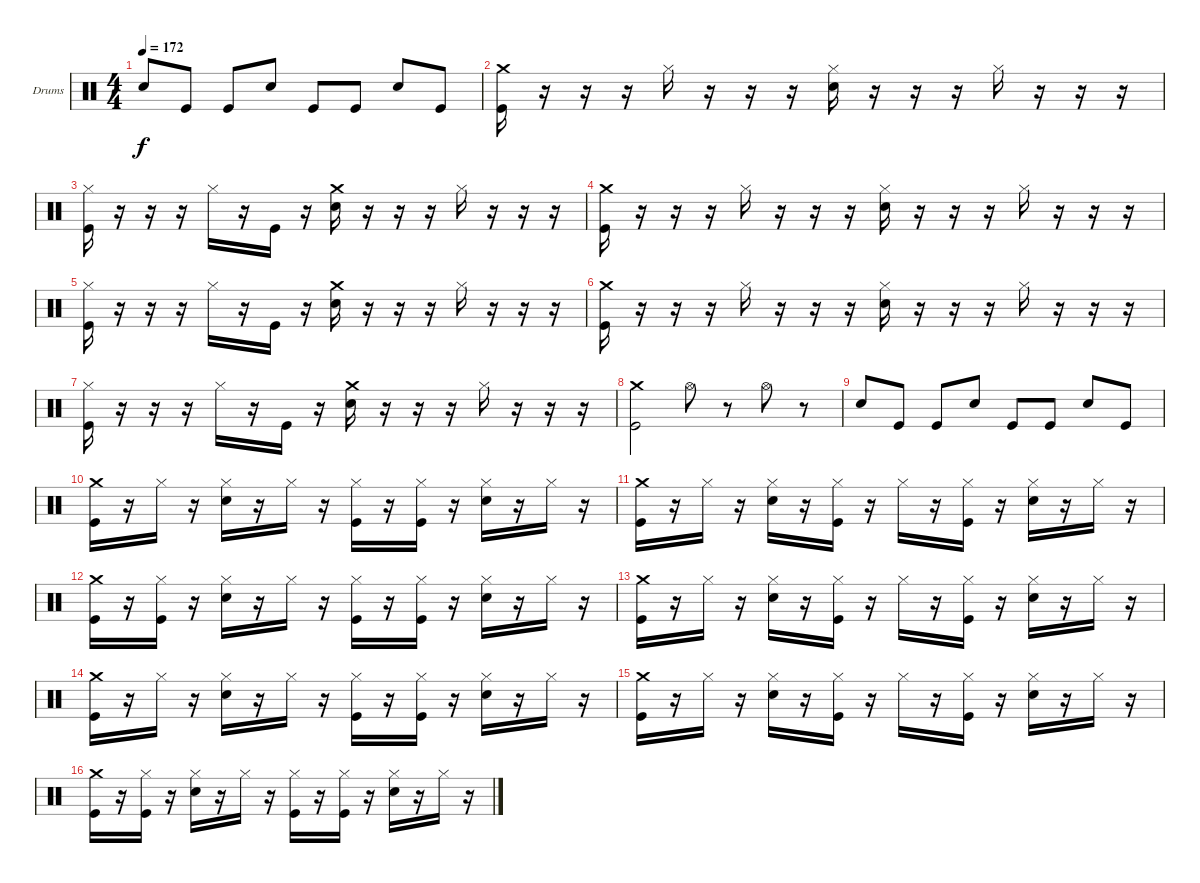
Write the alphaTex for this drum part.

\bracketExtendMode groupsimilarinstruments
\firstSystemTrackNameOrientation horizontal
\otherSystemsTrackNameOrientation horizontal
\track ("Drumkit" "Drums") {instrument percussion}
\staff {score}
\articulation defaults
\ts (4 4)
\tempo 172
\clef neutral
\ks c "Snare (hit) 2".8{dy f} "Kick (hit)".8 "Kick (hit)".8 "Snare (hit) 2".8 "Kick (hit)".8 "Kick (hit)".8 "Snare (hit) 2".8 "Kick (hit)".8
|
("Kick (hit)" "Crash medium (hit)").16 r.16 r.16 r.16 "Hi-Hat (closed)".16 r.16 r.16 r.16 ("Snare (hit) 2" "Hi-Hat (closed)").16 r.16 r.16 r.16 "Hi-Hat (closed)".16 r.16 r.16 r.16 |
("Kick (hit)" "Hi-Hat (closed)").16 r.16 r.16 r.16 "Hi-Hat (closed)".16 r.16 "Kick (hit)".16 r.16 ("Snare (hit) 2" "Crash medium (hit)").16 r.16 r.16 r.16 "Hi-Hat (closed)".16 r.16 r.16 r.16 |
("Kick (hit)" "Crash medium (hit)").16 r.16 r.16 r.16 "Hi-Hat (closed)".16 r.16 r.16 r.16 ("Snare (hit) 2" "Hi-Hat (closed)").16 r.16 r.16 r.16 "Hi-Hat (closed)".16 r.16 r.16 r.16 |
("Kick (hit)" "Hi-Hat (closed)").16 r.16 r.16 r.16 "Hi-Hat (closed)".16 r.16 "Kick (hit)".16 r.16 ("Snare (hit) 2" "Crash medium (hit)").16 r.16 r.16 r.16 "Hi-Hat (closed)".16 r.16 r.16 r.16 |
("Kick (hit)" "Crash medium (hit)").16 r.16 r.16 r.16 "Hi-Hat (closed)".16 r.16 r.16 r.16 ("Snare (hit) 2" "Hi-Hat (closed)").16 r.16 r.16 r.16 "Hi-Hat (closed)".16 r.16 r.16 r.16 |
("Kick (hit)" "Hi-Hat (closed)").16 r.16 r.16 r.16 "Hi-Hat (closed)".16 r.16 "Kick (hit)".16 r.16 ("Snare (hit) 2" "Crash medium (hit)").16 r.16 r.16 r.16 "Hi-Hat (closed)".16 r.16 r.16 r.16 |
("Kick (hit)" "Crash medium (hit)").2 "Hi-Hat (open)".8 r.8 "Hi-Hat (open)".8 r.8 |
"Snare (hit) 2".8 "Kick (hit)".8 "Kick (hit)".8 "Snare (hit) 2".8 "Kick (hit)".8 "Kick (hit)".8 "Snare (hit) 2".8 "Kick (hit)".8 |
("Kick (hit)" "Crash medium (hit)").16 r.16 "Hi-Hat (closed)".16 r.16 ("Snare (hit) 2" "Hi-Hat (closed)").16 r.16 "Hi-Hat (closed)".16 r.16 ("Kick (hit)" "Hi-Hat (closed)").16 r.16 ("Kick (hit)" "Hi-Hat (closed)").16 r.16 ("Snare (hit) 2" "Hi-Hat (closed)").16 r.16 "Hi-Hat (closed)".16 r.16 |
("Kick (hit)" "Crash medium (hit)").16 r.16 "Hi-Hat (closed)".16 r.16 ("Snare (hit) 2" "Hi-Hat (closed)").16 r.16 ("Kick (hit)" "Hi-Hat (closed)").16 r.16 "Hi-Hat (closed)".16 r.16 ("Kick (hit)" "Hi-Hat (closed)").16 r.16 ("Snare (hit) 2" "Hi-Hat (closed)").16 r.16 "Hi-Hat (closed)".16 r.16 |
("Kick (hit)" "Crash medium (hit)").16 r.16 ("Kick (hit)" "Hi-Hat (closed)").16 r.16 ("Snare (hit) 2" "Hi-Hat (closed)").16 r.16 "Hi-Hat (closed)".16 r.16 ("Kick (hit)" "Hi-Hat (closed)").16 r.16 ("Kick (hit)" "Hi-Hat (closed)").16 r.16 ("Snare (hit) 2" "Hi-Hat (closed)").16 r.16 "Hi-Hat (closed)".16 r.16 |
("Kick (hit)" "Crash medium (hit)").16 r.16 "Hi-Hat (closed)".16 r.16 ("Snare (hit) 2" "Hi-Hat (closed)").16 r.16 ("Kick (hit)" "Hi-Hat (closed)").16 r.16 "Hi-Hat (closed)".16 r.16 ("Kick (hit)" "Hi-Hat (closed)").16 r.16 ("Snare (hit) 2" "Hi-Hat (closed)").16 r.16 "Hi-Hat (closed)".16 r.16 |
("Kick (hit)" "Crash medium (hit)").16 r.16 "Hi-Hat (closed)".16 r.16 ("Snare (hit) 2" "Hi-Hat (closed)").16 r.16 "Hi-Hat (closed)".16 r.16 ("Kick (hit)" "Hi-Hat (closed)").16 r.16 ("Kick (hit)" "Hi-Hat (closed)").16 r.16 ("Snare (hit) 2" "Hi-Hat (closed)").16 r.16 "Hi-Hat (closed)".16 r.16 |
("Kick (hit)" "Crash medium (hit)").16 r.16 "Hi-Hat (closed)".16 r.16 ("Snare (hit) 2" "Hi-Hat (closed)").16 r.16 ("Kick (hit)" "Hi-Hat (closed)").16 r.16 "Hi-Hat (closed)".16 r.16 ("Kick (hit)" "Hi-Hat (closed)").16 r.16 ("Snare (hit) 2" "Hi-Hat (closed)").16 r.16 "Hi-Hat (closed)".16 r.16 |
("Kick (hit)" "Crash medium (hit)").16 r.16 ("Kick (hit)" "Hi-Hat (closed)").16 r.16 ("Snare (hit) 2" "Hi-Hat (closed)").16 r.16 "Hi-Hat (closed)".16 r.16 ("Kick (hit)" "Hi-Hat (closed)").16 r.16 ("Kick (hit)" "Hi-Hat (closed)").16 r.16 ("Snare (hit) 2" "Hi-Hat (closed)").16 r.16 "Hi-Hat (closed)".16 r.16
